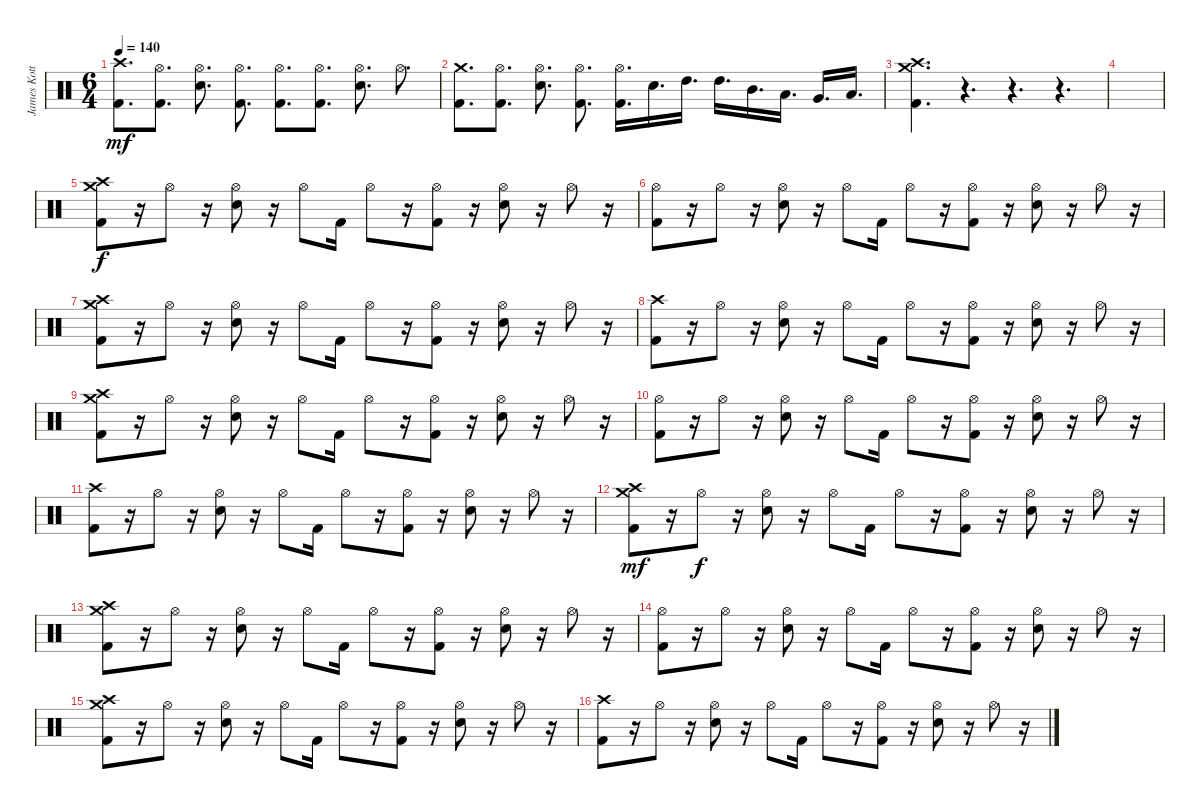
\track ("James Kottak" "James Kott") {instrument percussion}
\staff {score}
\articulation defaults
\ts (6 4)
\tempo 140
\clef neutral
\ks c
("Crash high (hit)" "Kick (hit) 2").8{d dy mf} ("Hi-Hat (open)" "Kick (hit) 2").8{d} ("Hi-Hat (open)" "Electric Snare (hit)").8{d} ("Hi-Hat (open)" "Kick (hit) 2").8{d} ("Hi-Hat (open)" "Kick (hit) 2").8{d} ("Hi-Hat (open)" "Kick (hit) 2").8{d} ("Hi-Hat (open)" "Electric Snare (hit)").8{d} "Hi-Hat (open)".8{d} |
("Crash medium (hit)" "Kick (hit) 2").8{d} ("Hi-Hat (open)" "Kick (hit) 2").8{d} ("Hi-Hat (open)" "Electric Snare (hit)").8{d} ("Hi-Hat (open)" "Kick (hit) 2").8{d} ("Hi-Hat (open)" "Kick (hit) 2").16{d} "Electric Snare (hit)".16{d} "High Tom (hit)".16{d} "High Tom (hit)".16{d} "Mid Tom (hit)".16{d} "Low Tom (hit)".16{d} "Very Low Tom (hit)".16{d} "Low Floor Tom (hit)".16{d} |
("Crash high (hit)" "Crash medium (hit)" "Kick (hit) 2").4{d} r.4{d} r.4{d} r.4{d} |
|
("Crash high (hit)" "Crash medium (hit)" "Kick (hit) 2").8{dy f} r.16 "Hi-Hat (open)".8 r.16 ("Hi-Hat (open)" "Electric Snare (hit)").8 r.16 "Hi-Hat (open)".8 "Kick (hit) 2".16 "Hi-Hat (open)".8 r.16 ("Hi-Hat (open)" "Kick (hit) 2").8 r.16 ("Hi-Hat (open)" "Electric Snare (hit)").8 r.16 "Hi-Hat (open)".8 r.16 |
("Hi-Hat (open)" "Kick (hit) 2").8 r.16 "Hi-Hat (open)".8 r.16 ("Hi-Hat (open)" "Electric Snare (hit)").8 r.16 "Hi-Hat (open)".8 "Kick (hit) 2".16 "Hi-Hat (open)".8 r.16 ("Hi-Hat (open)" "Kick (hit) 2").8 r.16 ("Hi-Hat (open)" "Electric Snare (hit)").8 r.16 "Hi-Hat (open)".8 r.16 |
("Crash high (hit)" "Crash medium (hit)" "Kick (hit) 2").8 r.16 "Hi-Hat (open)".8 r.16 ("Hi-Hat (open)" "Electric Snare (hit)").8 r.16 "Hi-Hat (open)".8 "Kick (hit) 2".16 "Hi-Hat (open)".8 r.16 ("Hi-Hat (open)" "Kick (hit) 2").8 r.16 ("Hi-Hat (open)" "Electric Snare (hit)").8 r.16 "Hi-Hat (open)".8 r.16 |
("Crash high (hit)" "Kick (hit) 2").8 r.16 "Hi-Hat (open)".8 r.16 ("Hi-Hat (open)" "Electric Snare (hit)").8 r.16 "Hi-Hat (open)".8 "Kick (hit) 2".16 "Hi-Hat (open)".8 r.16 ("Hi-Hat (open)" "Kick (hit) 2").8 r.16 ("Hi-Hat (open)" "Electric Snare (hit)").8 r.16 "Hi-Hat (open)".8 r.16 |
("Crash high (hit)" "Crash medium (hit)" "Kick (hit) 2").8 r.16 "Hi-Hat (open)".8 r.16 ("Hi-Hat (open)" "Electric Snare (hit)").8 r.16 "Hi-Hat (open)".8 "Kick (hit) 2".16 "Hi-Hat (open)".8 r.16 ("Hi-Hat (open)" "Kick (hit) 2").8 r.16 ("Hi-Hat (open)" "Electric Snare (hit)").8 r.16 "Hi-Hat (open)".8 r.16 |
("Hi-Hat (open)" "Kick (hit) 2").8 r.16 "Hi-Hat (open)".8 r.16 ("Hi-Hat (open)" "Electric Snare (hit)").8 r.16 "Hi-Hat (open)".8 "Kick (hit) 2".16 "Hi-Hat (open)".8 r.16 ("Hi-Hat (open)" "Kick (hit) 2").8 r.16 ("Hi-Hat (open)" "Electric Snare (hit)").8 r.16 "Hi-Hat (open)".8 r.16 |
("Crash high (hit)" "Kick (hit) 2").8 r.16 "Hi-Hat (open)".8 r.16 ("Hi-Hat (open)" "Electric Snare (hit)").8 r.16 "Hi-Hat (open)".8 "Kick (hit) 2".16 "Hi-Hat (open)".8 r.16 ("Hi-Hat (open)" "Kick (hit) 2").8 r.16 ("Hi-Hat (open)" "Electric Snare (hit)").8 r.16 "Hi-Hat (open)".8 r.16 |
("Crash medium (hit)" "Crash high (hit)" "Kick (hit) 2").8{dy mf} r.16 "Hi-Hat (open)".8{dy f} r.16 ("Hi-Hat (open)" "Electric Snare (hit)").8 r.16 "Hi-Hat (open)".8 "Kick (hit) 2".16 "Hi-Hat (open)".8 r.16 ("Hi-Hat (open)" "Kick (hit) 2").8 r.16 ("Hi-Hat (open)" "Electric Snare (hit)").8 r.16 "Hi-Hat (open)".8 r.16 |
("Crash high (hit)" "Crash medium (hit)" "Kick (hit) 2").8 r.16 "Hi-Hat (open)".8 r.16 ("Hi-Hat (open)" "Electric Snare (hit)").8 r.16 "Hi-Hat (open)".8 "Kick (hit) 2".16 "Hi-Hat (open)".8 r.16 ("Hi-Hat (open)" "Kick (hit) 2").8 r.16 ("Hi-Hat (open)" "Electric Snare (hit)").8 r.16 "Hi-Hat (open)".8 r.16 |
("Hi-Hat (open)" "Kick (hit) 2").8 r.16 "Hi-Hat (open)".8 r.16 ("Hi-Hat (open)" "Electric Snare (hit)").8 r.16 "Hi-Hat (open)".8 "Kick (hit) 2".16 "Hi-Hat (open)".8 r.16 ("Hi-Hat (open)" "Kick (hit) 2").8 r.16 ("Hi-Hat (open)" "Electric Snare (hit)").8 r.16 "Hi-Hat (open)".8 r.16 |
("Crash high (hit)" "Crash medium (hit)" "Kick (hit) 2").8 r.16 "Hi-Hat (open)".8 r.16 ("Hi-Hat (open)" "Electric Snare (hit)").8 r.16 "Hi-Hat (open)".8 "Kick (hit) 2".16 "Hi-Hat (open)".8 r.16 ("Hi-Hat (open)" "Kick (hit) 2").8 r.16 ("Hi-Hat (open)" "Electric Snare (hit)").8 r.16 "Hi-Hat (open)".8 r.16 |
("Crash high (hit)" "Kick (hit) 2").8 r.16 "Hi-Hat (open)".8 r.16 ("Hi-Hat (open)" "Electric Snare (hit)").8 r.16 "Hi-Hat (open)".8 "Kick (hit) 2".16 "Hi-Hat (open)".8 r.16 ("Hi-Hat (open)" "Kick (hit) 2").8 r.16 ("Hi-Hat (open)" "Electric Snare (hit)").8 r.16 "Hi-Hat (open)".8 r.16
